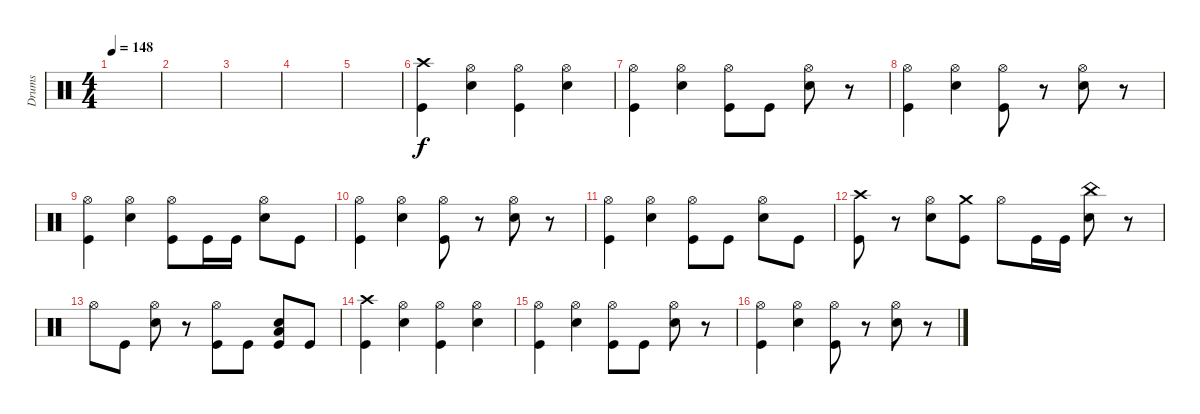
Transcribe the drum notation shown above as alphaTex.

\track ("Drums" "Drums") {instrument percussion}
\staff {score}
\articulation defaults
\ts (4 4)
\tempo 148
\clef neutral
\ks c
|
|
|
|
|
("Crash high (hit)" "Kick (hit)").4 ("Snare (hit) 2" "Hi-Hat (open)").4 ("Kick (hit)" "Hi-Hat (open)").4 ("Snare (hit) 2" "Hi-Hat (open)").4 |
("Hi-Hat (open)" "Kick (hit)").4 ("Snare (hit) 2" "Hi-Hat (open)").4 ("Kick (hit)" "Hi-Hat (open)").8 "Kick (hit)".8 ("Snare (hit) 2" "Hi-Hat (open)").8 r.8 |
("Hi-Hat (open)" "Kick (hit)").4 ("Snare (hit) 2" "Hi-Hat (open)").4 ("Kick (hit)" "Hi-Hat (open)").8 r.8 ("Snare (hit) 2" "Hi-Hat (open)").8 r.8 |
("Hi-Hat (open)" "Kick (hit)").4 ("Snare (hit) 2" "Hi-Hat (open)").4 ("Kick (hit)" "Hi-Hat (open)").8 "Kick (hit)".16 "Kick (hit)".16 ("Snare (hit) 2" "Hi-Hat (open)").8 "Kick (hit)".8 |
("Hi-Hat (open)" "Kick (hit)").4 ("Snare (hit) 2" "Hi-Hat (open)").4 ("Kick (hit)" "Hi-Hat (open)").8 r.8 ("Snare (hit) 2" "Hi-Hat (open)").8 r.8 |
("Hi-Hat (open)" "Kick (hit)").4 ("Snare (hit) 2" "Hi-Hat (open)").4 ("Kick (hit)" "Hi-Hat (open)").8 "Kick (hit)".8 ("Snare (hit) 2" "Hi-Hat (open)").8 "Kick (hit)".8 |
("Kick (hit)" "Crash high (hit)").8 r.8 ("Snare (hit) 2" "Hi-Hat (open)").8 ("Kick (hit)" "Crash medium (hit)").8 "Hi-Hat (open)".8 "Kick (hit)".16 "Kick (hit)".16 ("Snare (hit) 2" "China (hit)").8 r.8 |
"Hi-Hat (open)".8 "Kick (hit)".8 ("Snare (hit) 2" "Hi-Hat (open)").8 r.8 ("Kick (hit)" "Hi-Hat (open)").8 "Kick (hit)".8 ("Snare (hit) 2" "Low Floor Tom (hit)" "Kick (hit)").8 "Kick (hit)".8 |
("Crash high (hit)" "Kick (hit)").4 ("Snare (hit) 2" "Hi-Hat (open)").4 ("Kick (hit)" "Hi-Hat (open)").4 ("Snare (hit) 2" "Hi-Hat (open)").4 |
("Hi-Hat (open)" "Kick (hit)").4 ("Snare (hit) 2" "Hi-Hat (open)").4 ("Kick (hit)" "Hi-Hat (open)").8 "Kick (hit)".8 ("Snare (hit) 2" "Hi-Hat (open)").8 r.8 |
("Hi-Hat (open)" "Kick (hit)").4 ("Snare (hit) 2" "Hi-Hat (open)").4 ("Kick (hit)" "Hi-Hat (open)").8 r.8 ("Snare (hit) 2" "Hi-Hat (open)").8 r.8
